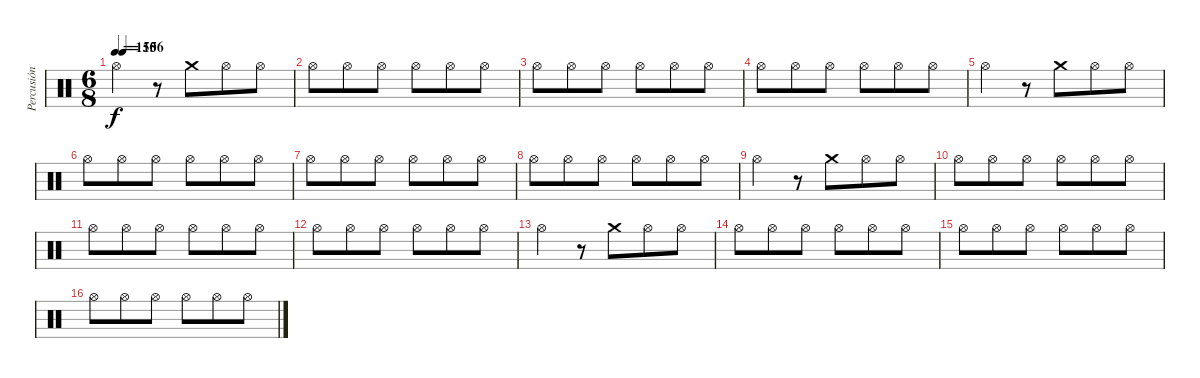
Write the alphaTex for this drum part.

\track ("Percusión" "Percusión") {instrument percussion}
\staff {score}
\articulation defaults
\ts (6 8)
\tempo 150
\tempo (156 0.041666666666666664)
\clef neutral
\ks c "Hi-Hat (open)".4{dy f}
r.8 "Crash medium (hit)".8 "Hi-Hat (open)".8 "Hi-Hat (open)".8 |
"Hi-Hat (open)".8 "Hi-Hat (open)".8 "Hi-Hat (open)".8 "Hi-Hat (open)".8 "Hi-Hat (open)".8 "Hi-Hat (open)".8 |
"Hi-Hat (open)".8 "Hi-Hat (open)".8 "Hi-Hat (open)".8 "Hi-Hat (open)".8 "Hi-Hat (open)".8 "Hi-Hat (open)".8 |
"Hi-Hat (open)".8 "Hi-Hat (open)".8 "Hi-Hat (open)".8 "Hi-Hat (open)".8 "Hi-Hat (open)".8 "Hi-Hat (open)".8 |
"Hi-Hat (open)".4 r.8 "Crash medium (hit)".8 "Hi-Hat (open)".8 "Hi-Hat (open)".8 |
"Hi-Hat (open)".8 "Hi-Hat (open)".8 "Hi-Hat (open)".8 "Hi-Hat (open)".8 "Hi-Hat (open)".8 "Hi-Hat (open)".8 |
"Hi-Hat (open)".8 "Hi-Hat (open)".8 "Hi-Hat (open)".8 "Hi-Hat (open)".8 "Hi-Hat (open)".8 "Hi-Hat (open)".8 |
"Hi-Hat (open)".8 "Hi-Hat (open)".8 "Hi-Hat (open)".8 "Hi-Hat (open)".8 "Hi-Hat (open)".8 "Hi-Hat (open)".8 |
"Hi-Hat (open)".4 r.8 "Crash medium (hit)".8 "Hi-Hat (open)".8 "Hi-Hat (open)".8 |
"Hi-Hat (open)".8 "Hi-Hat (open)".8 "Hi-Hat (open)".8 "Hi-Hat (open)".8 "Hi-Hat (open)".8 "Hi-Hat (open)".8 |
"Hi-Hat (open)".8 "Hi-Hat (open)".8 "Hi-Hat (open)".8 "Hi-Hat (open)".8 "Hi-Hat (open)".8 "Hi-Hat (open)".8 |
"Hi-Hat (open)".8 "Hi-Hat (open)".8 "Hi-Hat (open)".8 "Hi-Hat (open)".8 "Hi-Hat (open)".8 "Hi-Hat (open)".8 |
"Hi-Hat (open)".4 r.8 "Crash medium (hit)".8 "Hi-Hat (open)".8 "Hi-Hat (open)".8 |
"Hi-Hat (open)".8 "Hi-Hat (open)".8 "Hi-Hat (open)".8 "Hi-Hat (open)".8 "Hi-Hat (open)".8 "Hi-Hat (open)".8 |
"Hi-Hat (open)".8 "Hi-Hat (open)".8 "Hi-Hat (open)".8 "Hi-Hat (open)".8 "Hi-Hat (open)".8 "Hi-Hat (open)".8 |
"Hi-Hat (open)".8 "Hi-Hat (open)".8 "Hi-Hat (open)".8 "Hi-Hat (open)".8 "Hi-Hat (open)".8 "Hi-Hat (open)".8
